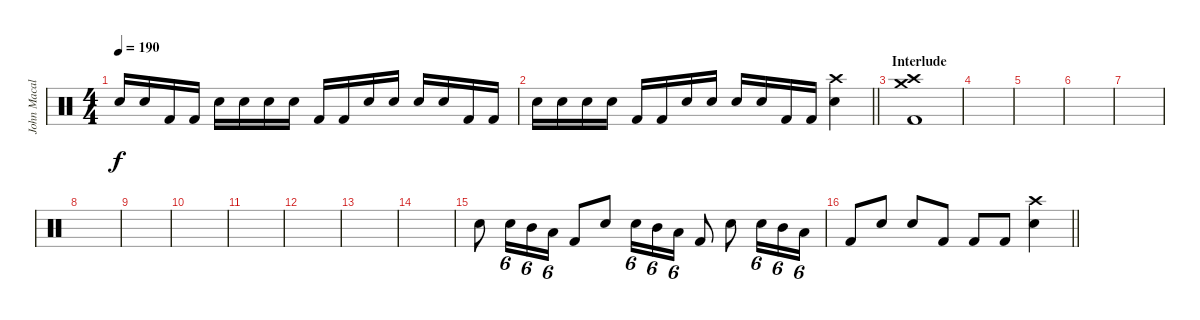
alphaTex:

\track ("John Macaluso" "John Macal") {instrument percussion}
\staff {score}
\articulation defaults
\ts (4 4)
\tempo 190
\clef neutral
\ks c "Snare (hit) 2".16{dy f} "Snare (hit) 2".16 "Kick (hit) 2".16 "Kick (hit) 2".16 "Snare (hit) 2".16 "Snare (hit) 2".16 "Snare (hit) 2".16 "Snare (hit) 2".16 "Kick (hit) 2".16 "Kick (hit) 2".16 "Snare (hit) 2".16 "Snare (hit) 2".16 "Snare (hit) 2".16 "Snare (hit) 2".16 "Kick (hit) 2".16 "Kick (hit) 2".16
|
\barLineRight lightlight "Snare (hit) 2".16 "Snare (hit) 2".16 "Snare (hit) 2".16 "Snare (hit) 2".16 "Kick (hit) 2".16 "Kick (hit) 2".16 "Snare (hit) 2".16 "Snare (hit) 2".16 "Snare (hit) 2".16 "Snare (hit) 2".16 "Kick (hit) 2".16 "Kick (hit) 2".16
("Crash high (hit)" "Snare (hit) 2").4 |
\section ("" "Interlude")
("Crash medium (hit)" "Crash high (hit)" "Kick (hit) 2").1 |
|
|
|
|
|
|
|
|
|
|
|
"Snare (hit) 2".8 "Snare (hit) 2".16{tu (6 4)} "Mid Tom (hit)".16{tu (6 4)} "Low Tom (hit)".16{tu (6 4)} "Kick (hit) 2".8 "Snare (hit) 2".8 "Snare (hit) 2".16{tu (6 4)} "Mid Tom (hit)".16{tu (6 4)} "Low Tom (hit)".16{tu (6 4)} "Kick (hit) 2".8 "Snare (hit) 2".8 "Snare (hit) 2".16{tu (6 4)} "Mid Tom (hit)".16{tu (6 4)} "Low Tom (hit)".16{tu (6 4)} |
\barLineRight lightlight "Kick (hit) 2".8 "Snare (hit) 2".8 "Snare (hit) 2".8 "Kick (hit) 2".8 "Kick (hit) 2".8 "Kick (hit) 2".8
("Crash high (hit)" "Snare (hit) 2").4
